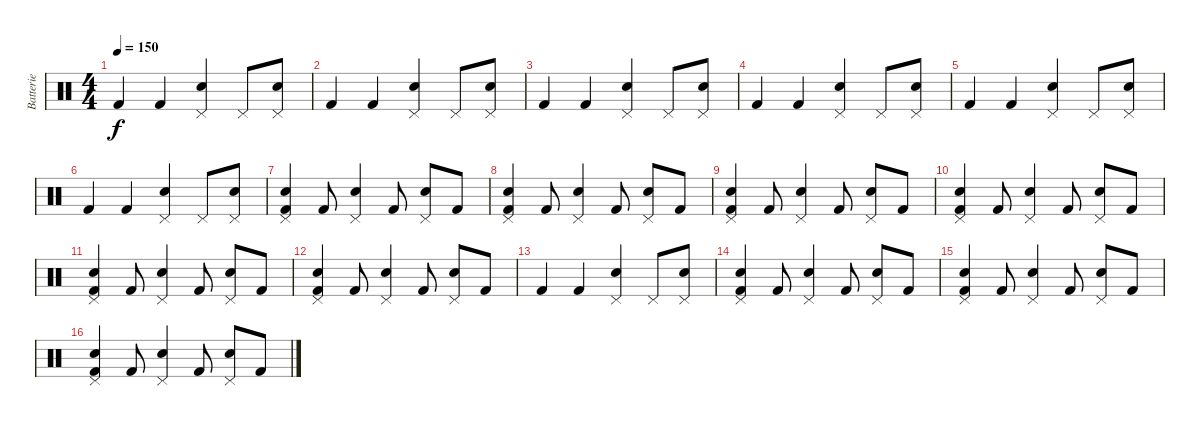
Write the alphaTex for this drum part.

\track ("Batterie" "Batterie") {instrument percussion}
\staff {score}
\articulation defaults
\ts (4 4)
\tempo 150
\clef neutral
\ks c "Kick (hit) 2".4{dy f} "Kick (hit) 2".4
("Pedal Hi-Hat (hit)" "Electric Snare (hit)").4 "Pedal Hi-Hat (hit)".8 ("Pedal Hi-Hat (hit)" "Electric Snare (hit)").8 |
"Kick (hit) 2".4 "Kick (hit) 2".4 ("Pedal Hi-Hat (hit)" "Electric Snare (hit)").4 "Pedal Hi-Hat (hit)".8 ("Pedal Hi-Hat (hit)" "Electric Snare (hit)").8 |
"Kick (hit) 2".4 "Kick (hit) 2".4 ("Pedal Hi-Hat (hit)" "Electric Snare (hit)").4 "Pedal Hi-Hat (hit)".8 ("Pedal Hi-Hat (hit)" "Electric Snare (hit)").8 |
"Kick (hit) 2".4 "Kick (hit) 2".4 ("Pedal Hi-Hat (hit)" "Electric Snare (hit)").4 "Pedal Hi-Hat (hit)".8 ("Pedal Hi-Hat (hit)" "Electric Snare (hit)").8 |
"Kick (hit) 2".4 "Kick (hit) 2".4 ("Pedal Hi-Hat (hit)" "Electric Snare (hit)").4 "Pedal Hi-Hat (hit)".8 ("Pedal Hi-Hat (hit)" "Electric Snare (hit)").8 |
"Kick (hit) 2".4 "Kick (hit) 2".4 ("Pedal Hi-Hat (hit)" "Electric Snare (hit)").4 "Pedal Hi-Hat (hit)".8 ("Pedal Hi-Hat (hit)" "Electric Snare (hit)").8 |
("Pedal Hi-Hat (hit)" "Electric Snare (hit)" "Kick (hit) 2").4 "Kick (hit) 2".8 ("Pedal Hi-Hat (hit)" "Electric Snare (hit)").4 "Kick (hit) 2".8 ("Pedal Hi-Hat (hit)" "Electric Snare (hit)").8 "Kick (hit) 2".8 |
("Pedal Hi-Hat (hit)" "Electric Snare (hit)" "Kick (hit) 2").4 "Kick (hit) 2".8 ("Pedal Hi-Hat (hit)" "Electric Snare (hit)").4 "Kick (hit) 2".8 ("Pedal Hi-Hat (hit)" "Electric Snare (hit)").8 "Kick (hit) 2".8 |
("Pedal Hi-Hat (hit)" "Electric Snare (hit)" "Kick (hit) 2").4 "Kick (hit) 2".8 ("Pedal Hi-Hat (hit)" "Electric Snare (hit)").4 "Kick (hit) 2".8 ("Pedal Hi-Hat (hit)" "Electric Snare (hit)").8 "Kick (hit) 2".8 |
("Pedal Hi-Hat (hit)" "Electric Snare (hit)" "Kick (hit) 2").4 "Kick (hit) 2".8 ("Pedal Hi-Hat (hit)" "Electric Snare (hit)").4 "Kick (hit) 2".8 ("Pedal Hi-Hat (hit)" "Electric Snare (hit)").8 "Kick (hit) 2".8 |
("Pedal Hi-Hat (hit)" "Electric Snare (hit)" "Kick (hit) 2").4 "Kick (hit) 2".8 ("Pedal Hi-Hat (hit)" "Electric Snare (hit)").4 "Kick (hit) 2".8 ("Pedal Hi-Hat (hit)" "Electric Snare (hit)").8 "Kick (hit) 2".8 |
("Pedal Hi-Hat (hit)" "Electric Snare (hit)" "Kick (hit) 2").4 "Kick (hit) 2".8 ("Pedal Hi-Hat (hit)" "Electric Snare (hit)").4 "Kick (hit) 2".8 ("Pedal Hi-Hat (hit)" "Electric Snare (hit)").8 "Kick (hit) 2".8 |
"Kick (hit) 2".4 "Kick (hit) 2".4 ("Pedal Hi-Hat (hit)" "Electric Snare (hit)").4 "Pedal Hi-Hat (hit)".8 ("Pedal Hi-Hat (hit)" "Electric Snare (hit)").8 |
("Pedal Hi-Hat (hit)" "Electric Snare (hit)" "Kick (hit) 2").4 "Kick (hit) 2".8 ("Pedal Hi-Hat (hit)" "Electric Snare (hit)").4 "Kick (hit) 2".8 ("Pedal Hi-Hat (hit)" "Electric Snare (hit)").8 "Kick (hit) 2".8 |
("Pedal Hi-Hat (hit)" "Electric Snare (hit)" "Kick (hit) 2").4 "Kick (hit) 2".8 ("Pedal Hi-Hat (hit)" "Electric Snare (hit)").4 "Kick (hit) 2".8 ("Pedal Hi-Hat (hit)" "Electric Snare (hit)").8 "Kick (hit) 2".8 |
("Pedal Hi-Hat (hit)" "Electric Snare (hit)" "Kick (hit) 2").4 "Kick (hit) 2".8 ("Pedal Hi-Hat (hit)" "Electric Snare (hit)").4 "Kick (hit) 2".8 ("Pedal Hi-Hat (hit)" "Electric Snare (hit)").8 "Kick (hit) 2".8
